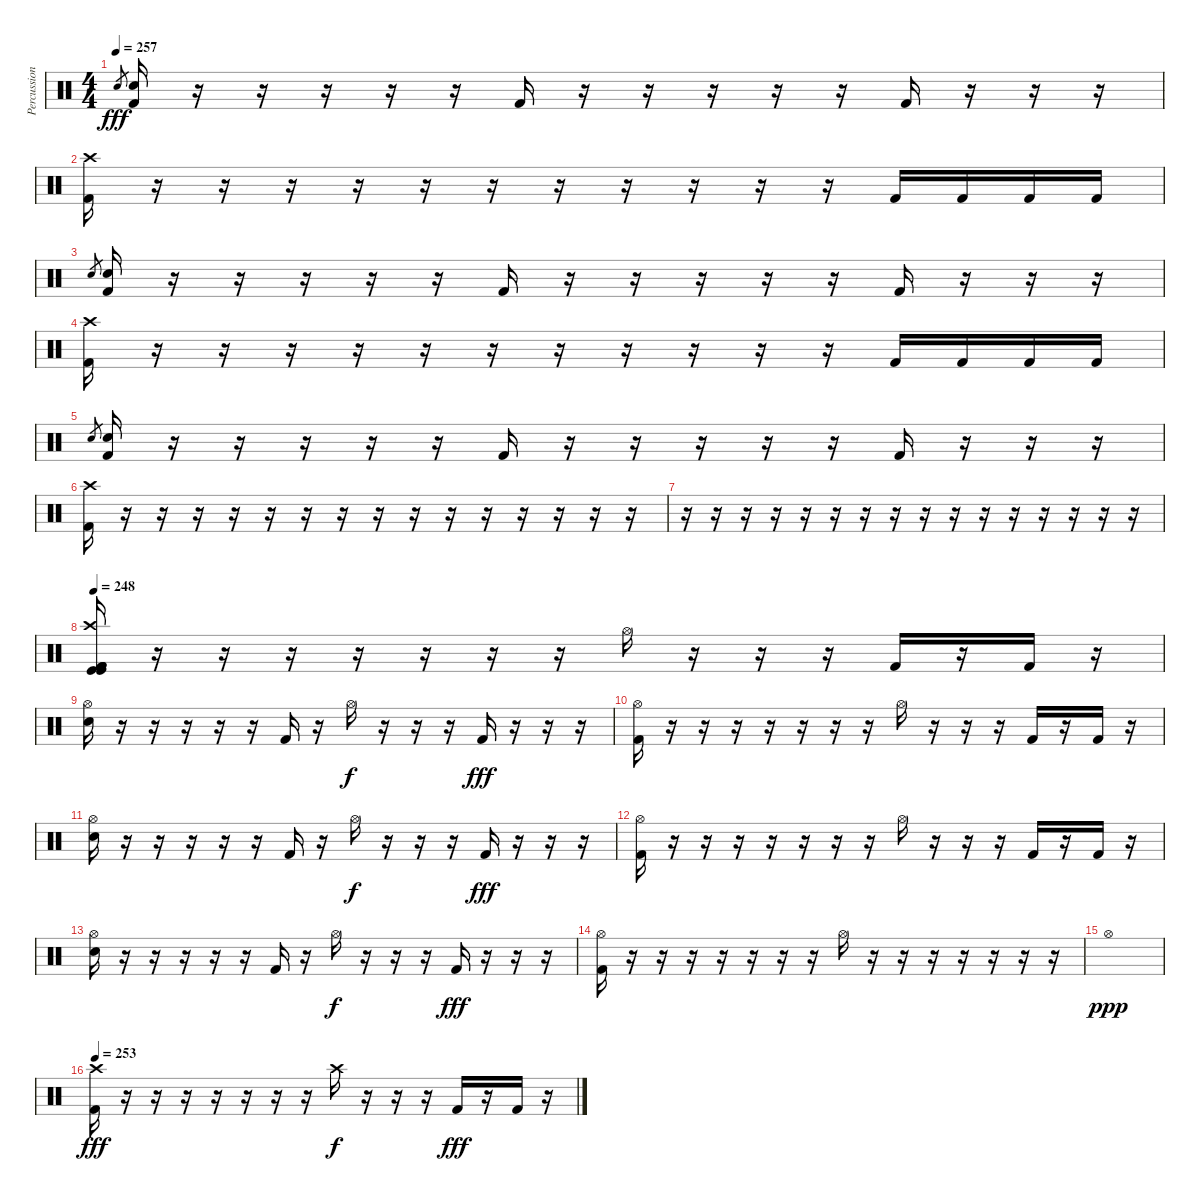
\track ("Percussion" "Percussion") {instrument percussion}
\staff {score}
\articulation defaults
\ts (4 4)
\tempo 257
\clef neutral
\ks c "Electric Snare (hit)".8{gr dy fff}
("Electric Snare (hit)" "Kick (hit) 2").16 r.16 r.16 r.16 r.16 r.16 "Kick (hit) 2".16 r.16 r.16 r.16 r.16 r.16 "Kick (hit) 2".16 r.16 r.16 r.16 |
("Crash high (hit)" "Kick (hit) 2").16 r.16 r.16 r.16 r.16 r.16 r.16 r.16 r.16 r.16 r.16 r.16 "Kick (hit) 2".16 "Kick (hit) 2".16 "Kick (hit) 2".16 "Kick (hit) 2".16 |
"Electric Snare (hit)".8{gr} ("Electric Snare (hit)" "Kick (hit) 2").16 r.16 r.16 r.16 r.16 r.16 "Kick (hit) 2".16 r.16 r.16 r.16 r.16 r.16 "Kick (hit) 2".16 r.16 r.16 r.16 |
("Crash high (hit)" "Kick (hit) 2").16 r.16 r.16 r.16 r.16 r.16 r.16 r.16 r.16 r.16 r.16 r.16 "Kick (hit) 2".16 "Kick (hit) 2".16 "Kick (hit) 2".16 "Kick (hit) 2".16 |
"Electric Snare (hit)".8{gr} ("Electric Snare (hit)" "Kick (hit) 2").16 r.16 r.16 r.16 r.16 r.16 "Kick (hit) 2".16 r.16 r.16 r.16 r.16 r.16 "Kick (hit) 2".16 r.16 r.16 r.16 |
("Crash high (hit)" "Kick (hit) 2").16 r.16 r.16 r.16 r.16 r.16 r.16 r.16 r.16 r.16 r.16 r.16 r.16 r.16 r.16 r.16 |
r.16 r.16 r.16 r.16 r.16 r.16 r.16 r.16 r.16 r.16 r.16 r.16 r.16 r.16 r.16 r.16 |
\tempo 248
("Crash high (hit)" "Kick (hit)" "Kick (hit)" "Kick (hit) 2" "Kick (hit) 2" "Kick (hit) 2").16 r.16 r.16 r.16 r.16 r.16 r.16 r.16 "Hi-Hat (open)".16 r.16 r.16 r.16 "Kick (hit) 2".16 r.16 "Kick (hit) 2".16 r.16 |
("Hi-Hat (open)" "Electric Snare (hit)").16 r.16 r.16 r.16 r.16 r.16 "Kick (hit) 2".16 r.16 "Hi-Hat (open)".16{dy f} r.16 r.16 r.16 "Kick (hit) 2".16{dy fff} r.16 r.16 r.16 |
("Hi-Hat (open)" "Kick (hit) 2").16 r.16 r.16 r.16 r.16 r.16 r.16 r.16 "Hi-Hat (open)".16 r.16 r.16 r.16 "Kick (hit) 2".16 r.16 "Kick (hit) 2".16 r.16 |
("Hi-Hat (open)" "Electric Snare (hit)").16 r.16 r.16 r.16 r.16 r.16 "Kick (hit) 2".16 r.16 "Hi-Hat (open)".16{dy f} r.16 r.16 r.16 "Kick (hit) 2".16{dy fff} r.16 r.16 r.16 |
("Hi-Hat (open)" "Kick (hit) 2").16 r.16 r.16 r.16 r.16 r.16 r.16 r.16 "Hi-Hat (open)".16 r.16 r.16 r.16 "Kick (hit) 2".16 r.16 "Kick (hit) 2".16 r.16 |
("Hi-Hat (open)" "Electric Snare (hit)").16 r.16 r.16 r.16 r.16 r.16 "Kick (hit) 2".16 r.16 "Hi-Hat (open)".16{dy f} r.16 r.16 r.16 "Kick (hit) 2".16{dy fff} r.16 r.16 r.16 |
("Hi-Hat (open)" "Kick (hit) 2").16 r.16 r.16 r.16 r.16 r.16 r.16 r.16 "Hi-Hat (open)".16 r.16 r.16 r.16 r.16 r.16 r.16 r.16 |
"Hi-Hat (open)".1{dy ppp} |
\tempo 253
("Crash high (hit)" "Kick (hit) 2").16{dy fff} r.16 r.16 r.16 r.16 r.16 r.16 r.16 "Crash high (hit)".16{dy f} r.16 r.16 r.16 "Kick (hit) 2".16{dy fff} r.16 "Kick (hit) 2".16 r.16
